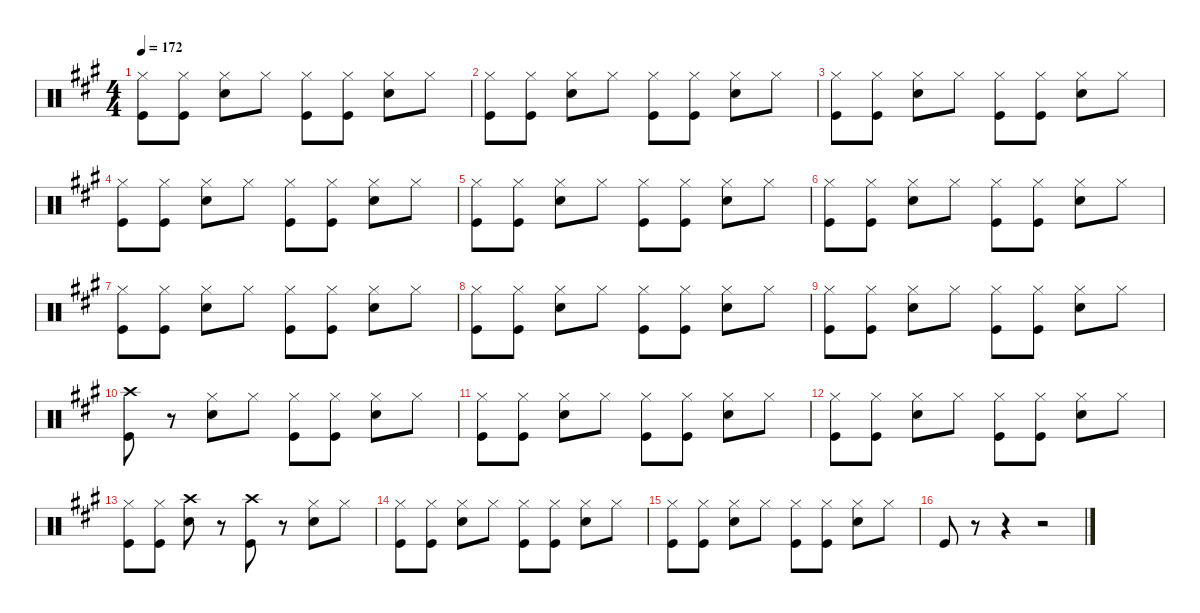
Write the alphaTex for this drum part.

\defaultSystemsLayout 4
\hideDynamics
\bracketExtendMode nobrackets
\singleTrackTrackNamePolicy hidden
\multiTrackTrackNamePolicy hidden
\firstSystemTrackNameMode fullname
\firstSystemTrackNameOrientation horizontal
\otherSystemsTrackNameOrientation horizontal
\track ("Percussion" "drm.") {instrument percussion}
\staff {score}
\articulation defaults
\ts (4 4)
\tempo 172
\clef neutral
\ks a
("Hi-Hat (closed)"{acc forcenatural} "Kick (hit)"{acc forcenatural}).8{dy f beam Down} ("Hi-Hat (closed)"{acc forcenatural} "Kick (hit)"{acc forcenatural}).8{beam Down} ("Hi-Hat (closed)"{acc forcenatural} "Snare (hit) 2"{acc forcenatural}).8{beam Down} "Hi-Hat (closed)"{acc forcenatural}.8{beam Down} ("Hi-Hat (closed)"{acc forcenatural} "Kick (hit)"{acc forcenatural}).8{beam Down} ("Hi-Hat (closed)"{acc forcenatural} "Kick (hit)"{acc forcenatural}).8{beam Down} ("Hi-Hat (closed)"{acc forcenatural} "Snare (hit) 2"{acc forcenatural}).8{beam Down} "Hi-Hat (closed)"{acc forcenatural}.8{beam Down} |
("Hi-Hat (closed)"{acc forcenatural} "Kick (hit)"{acc forcenatural}).8{beam Down} ("Hi-Hat (closed)"{acc forcenatural} "Kick (hit)"{acc forcenatural}).8{beam Down} ("Hi-Hat (closed)"{acc forcenatural} "Snare (hit) 2"{acc forcenatural}).8{beam Down} "Hi-Hat (closed)"{acc forcenatural}.8{beam Down} ("Hi-Hat (closed)"{acc forcenatural} "Kick (hit)"{acc forcenatural}).8{beam Down} ("Hi-Hat (closed)"{acc forcenatural} "Kick (hit)"{acc forcenatural}).8{beam Down} ("Hi-Hat (closed)"{acc forcenatural} "Snare (hit) 2"{acc forcenatural}).8{beam Down} "Hi-Hat (closed)"{acc forcenatural}.8{beam Down} |
("Hi-Hat (closed)"{acc forcenatural} "Kick (hit)"{acc forcenatural}).8{beam Down} ("Hi-Hat (closed)"{acc forcenatural} "Kick (hit)"{acc forcenatural}).8{beam Down} ("Hi-Hat (closed)"{acc forcenatural} "Snare (hit) 2"{acc forcenatural}).8{beam Down} "Hi-Hat (closed)"{acc forcenatural}.8{beam Down} ("Hi-Hat (closed)"{acc forcenatural} "Kick (hit)"{acc forcenatural}).8{beam Down} ("Hi-Hat (closed)"{acc forcenatural} "Kick (hit)"{acc forcenatural}).8{beam Down} ("Hi-Hat (closed)"{acc forcenatural} "Snare (hit) 2"{acc forcenatural}).8{beam Down} "Hi-Hat (closed)"{acc forcenatural}.8{beam Down} |
("Hi-Hat (closed)"{acc forcenatural} "Kick (hit)"{acc forcenatural}).8{beam Down} ("Hi-Hat (closed)"{acc forcenatural} "Kick (hit)"{acc forcenatural}).8{beam Down} ("Hi-Hat (closed)"{acc forcenatural} "Snare (hit) 2"{acc forcenatural}).8{beam Down} "Hi-Hat (closed)"{acc forcenatural}.8{beam Down} ("Hi-Hat (closed)"{acc forcenatural} "Kick (hit)"{acc forcenatural}).8{beam Down} ("Hi-Hat (closed)"{acc forcenatural} "Kick (hit)"{acc forcenatural}).8{beam Down} ("Hi-Hat (closed)"{acc forcenatural} "Snare (hit) 2"{acc forcenatural}).8{beam Down} "Hi-Hat (closed)"{acc forcenatural}.8{beam Down} |
("Hi-Hat (closed)"{acc forcenatural} "Kick (hit)"{acc forcenatural}).8{beam Down} ("Hi-Hat (closed)"{acc forcenatural} "Kick (hit)"{acc forcenatural}).8{beam Down} ("Hi-Hat (closed)"{acc forcenatural} "Snare (hit) 2"{acc forcenatural}).8{beam Down} "Hi-Hat (closed)"{acc forcenatural}.8{beam Down} ("Hi-Hat (closed)"{acc forcenatural} "Kick (hit)"{acc forcenatural}).8{beam Down} ("Hi-Hat (closed)"{acc forcenatural} "Kick (hit)"{acc forcenatural}).8{beam Down} ("Hi-Hat (closed)"{acc forcenatural} "Snare (hit) 2"{acc forcenatural}).8{beam Down} "Hi-Hat (closed)"{acc forcenatural}.8{beam Down} |
("Hi-Hat (closed)"{acc forcenatural} "Kick (hit)"{acc forcenatural}).8{beam Down} ("Hi-Hat (closed)"{acc forcenatural} "Kick (hit)"{acc forcenatural}).8{beam Down} ("Hi-Hat (closed)"{acc forcenatural} "Snare (hit) 2"{acc forcenatural}).8{beam Down} "Hi-Hat (closed)"{acc forcenatural}.8{beam Down} ("Hi-Hat (closed)"{acc forcenatural} "Kick (hit)"{acc forcenatural}).8{beam Down} ("Hi-Hat (closed)"{acc forcenatural} "Kick (hit)"{acc forcenatural}).8{beam Down} ("Hi-Hat (closed)"{acc forcenatural} "Snare (hit) 2"{acc forcenatural}).8{beam Down} "Hi-Hat (closed)"{acc forcenatural}.8{beam Down} |
("Hi-Hat (closed)"{acc forcenatural} "Kick (hit)"{acc forcenatural}).8{beam Down} ("Hi-Hat (closed)"{acc forcenatural} "Kick (hit)"{acc forcenatural}).8{beam Down} ("Hi-Hat (closed)"{acc forcenatural} "Snare (hit) 2"{acc forcenatural}).8{beam Down} "Hi-Hat (closed)"{acc forcenatural}.8{beam Down} ("Hi-Hat (closed)"{acc forcenatural} "Kick (hit)"{acc forcenatural}).8{beam Down} ("Hi-Hat (closed)"{acc forcenatural} "Kick (hit)"{acc forcenatural}).8{beam Down} ("Hi-Hat (closed)"{acc forcenatural} "Snare (hit) 2"{acc forcenatural}).8{beam Down} "Hi-Hat (closed)"{acc forcenatural}.8{beam Down} |
("Hi-Hat (closed)"{acc forcenatural} "Kick (hit)"{acc forcenatural}).8{beam Down} ("Hi-Hat (closed)"{acc forcenatural} "Kick (hit)"{acc forcenatural}).8{beam Down} ("Hi-Hat (closed)"{acc forcenatural} "Snare (hit) 2"{acc forcenatural}).8{beam Down} "Hi-Hat (closed)"{acc forcenatural}.8{beam Down} ("Hi-Hat (closed)"{acc forcenatural} "Kick (hit)"{acc forcenatural}).8{beam Down} ("Hi-Hat (closed)"{acc forcenatural} "Kick (hit)"{acc forcenatural}).8{beam Down} ("Hi-Hat (closed)"{acc forcenatural} "Snare (hit) 2"{acc forcenatural}).8{beam Down} "Hi-Hat (closed)"{acc forcenatural}.8{beam Down} |
("Hi-Hat (closed)"{acc forcenatural} "Kick (hit)"{acc forcenatural}).8{beam Down} ("Hi-Hat (closed)"{acc forcenatural} "Kick (hit)"{acc forcenatural}).8{beam Down} ("Hi-Hat (closed)"{acc forcenatural} "Snare (hit) 2"{acc forcenatural}).8{beam Down} "Hi-Hat (closed)"{acc forcenatural}.8{beam Down} ("Hi-Hat (closed)"{acc forcenatural} "Kick (hit)"{acc forcenatural}).8{beam Down} ("Hi-Hat (closed)"{acc forcenatural} "Kick (hit)"{acc forcenatural}).8{beam Down} ("Hi-Hat (closed)"{acc forcenatural} "Snare (hit) 2"{acc forcenatural}).8{beam Down} "Hi-Hat (closed)"{acc forcenatural}.8{beam Down} |
("Crash high (hit)"{acc forcenatural} "Kick (hit)"{acc forcenatural}).8{beam Down} r.8{beam Down} ("Hi-Hat (closed)"{acc forcenatural} "Snare (hit) 2"{acc forcenatural}).8{beam Down} "Hi-Hat (closed)"{acc forcenatural}.8{beam Down} ("Hi-Hat (closed)"{acc forcenatural} "Kick (hit)"{acc forcenatural}).8{beam Down} ("Hi-Hat (closed)"{acc forcenatural} "Kick (hit)"{acc forcenatural}).8{beam Down} ("Hi-Hat (closed)"{acc forcenatural} "Snare (hit) 2"{acc forcenatural}).8{beam Down} "Hi-Hat (closed)"{acc forcenatural}.8{beam Down} |
("Hi-Hat (closed)"{acc forcenatural} "Kick (hit)"{acc forcenatural}).8{beam Down} ("Hi-Hat (closed)"{acc forcenatural} "Kick (hit)"{acc forcenatural}).8{beam Down} ("Hi-Hat (closed)"{acc forcenatural} "Snare (hit) 2"{acc forcenatural}).8{beam Down} "Hi-Hat (closed)"{acc forcenatural}.8{beam Down} ("Hi-Hat (closed)"{acc forcenatural} "Kick (hit)"{acc forcenatural}).8{beam Down} ("Hi-Hat (closed)"{acc forcenatural} "Kick (hit)"{acc forcenatural}).8{beam Down} ("Hi-Hat (closed)"{acc forcenatural} "Snare (hit) 2"{acc forcenatural}).8{beam Down} "Hi-Hat (closed)"{acc forcenatural}.8{beam Down} |
("Hi-Hat (closed)"{acc forcenatural} "Kick (hit)"{acc forcenatural}).8{beam Down} ("Hi-Hat (closed)"{acc forcenatural} "Kick (hit)"{acc forcenatural}).8{beam Down} ("Hi-Hat (closed)"{acc forcenatural} "Snare (hit) 2"{acc forcenatural}).8{beam Down} "Hi-Hat (closed)"{acc forcenatural}.8{beam Down} ("Hi-Hat (closed)"{acc forcenatural} "Kick (hit)"{acc forcenatural}).8{beam Down} ("Hi-Hat (closed)"{acc forcenatural} "Kick (hit)"{acc forcenatural}).8{beam Down} ("Hi-Hat (closed)"{acc forcenatural} "Snare (hit) 2"{acc forcenatural}).8{beam Down} "Hi-Hat (closed)"{acc forcenatural}.8{beam Down} |
("Hi-Hat (closed)"{acc forcenatural} "Kick (hit)"{acc forcenatural}).8{beam Down} ("Hi-Hat (closed)"{acc forcenatural} "Kick (hit)"{acc forcenatural}).8{beam Down} ("Crash high (hit)"{acc forcenatural} "Snare (hit) 2"{acc forcenatural}).8{beam Down} r.8{beam Down} ("Crash high (hit)"{acc forcenatural} "Kick (hit)"{acc forcenatural}).8{beam Down} r.8{beam Down} ("Hi-Hat (closed)"{acc forcenatural} "Snare (hit) 2"{acc forcenatural}).8{beam Down} "Hi-Hat (closed)"{acc forcenatural}.8{beam Down} |
("Hi-Hat (closed)"{acc forcenatural} "Kick (hit)"{acc forcenatural}).8{beam Down} ("Hi-Hat (closed)"{acc forcenatural} "Kick (hit)"{acc forcenatural}).8{beam Down} ("Hi-Hat (closed)"{acc forcenatural} "Snare (hit) 2"{acc forcenatural}).8{beam Down} "Hi-Hat (closed)"{acc forcenatural}.8{beam Down} ("Hi-Hat (closed)"{acc forcenatural} "Kick (hit)"{acc forcenatural}).8{beam Down} ("Hi-Hat (closed)"{acc forcenatural} "Kick (hit)"{acc forcenatural}).8{beam Down} ("Hi-Hat (closed)"{acc forcenatural} "Snare (hit) 2"{acc forcenatural}).8{beam Down} "Hi-Hat (closed)"{acc forcenatural}.8{beam Down} |
("Hi-Hat (closed)"{acc forcenatural} "Kick (hit)"{acc forcenatural}).8{beam Down} ("Hi-Hat (closed)"{acc forcenatural} "Kick (hit)"{acc forcenatural}).8{beam Down} ("Hi-Hat (closed)"{acc forcenatural} "Snare (hit) 2"{acc forcenatural}).8{beam Down} "Hi-Hat (closed)"{acc forcenatural}.8{beam Down} ("Hi-Hat (closed)"{acc forcenatural} "Kick (hit)"{acc forcenatural}).8{beam Down} ("Hi-Hat (closed)"{acc forcenatural} "Kick (hit)"{acc forcenatural}).8{beam Down} ("Hi-Hat (closed)"{acc forcenatural} "Snare (hit) 2"{acc forcenatural}).8{beam Down} "Hi-Hat (closed)"{acc forcenatural}.8{beam Down} |
"Kick (hit)"{acc forcenatural}.8{beam Up} r.8{beam Up} r.4{beam Up} r.2{beam Up}
